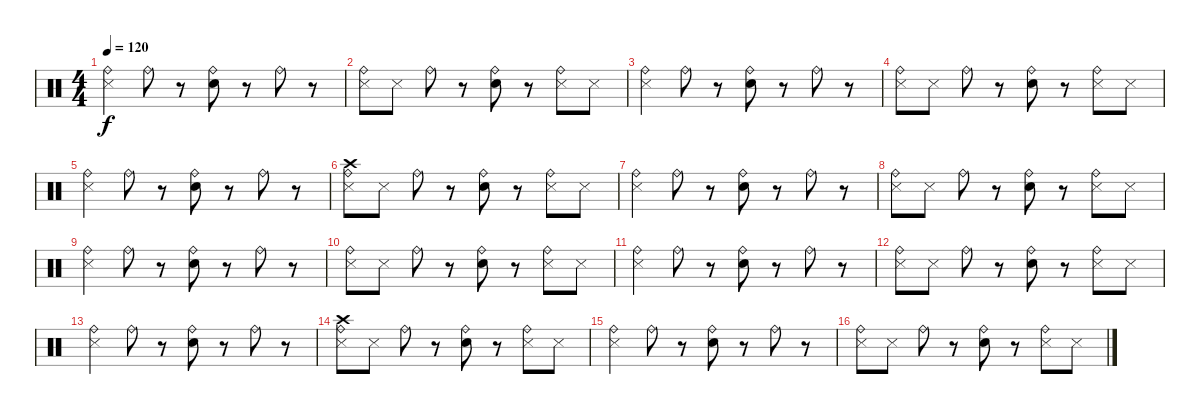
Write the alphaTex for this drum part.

\track "" {instrument percussion}
\staff {score}
\articulation defaults
\ts (4 4)
\tempo 120
\clef neutral
\ks c
("Metronome (hit)" "Ride (bell)").4{dy f} "Ride (bell)".8 r.8 ("Electric Snare (hit)" "Ride (bell)").8 r.8 "Ride (bell)".8 r.8 |
("Metronome (hit)" "Ride (bell)").8 "Metronome (hit)".8 "Ride (bell)".8 r.8 ("Electric Snare (hit)" "Ride (bell)").8 r.8 ("Metronome (hit)" "Ride (bell)").8 "Metronome (hit)".8 |
("Metronome (hit)" "Ride (bell)").4 "Ride (bell)".8 r.8 ("Electric Snare (hit)" "Ride (bell)").8 r.8 "Ride (bell)".8 r.8 |
("Metronome (hit)" "Ride (bell)").8 "Metronome (hit)".8 "Ride (bell)".8 r.8 ("Electric Snare (hit)" "Ride (bell)").8 r.8 ("Metronome (hit)" "Ride (bell)").8 "Metronome (hit)".8 |
("Metronome (hit)" "Ride (bell)").4 "Ride (bell)".8 r.8 ("Electric Snare (hit)" "Ride (bell)").8 r.8 "Ride (bell)".8 r.8 |
("Metronome (hit)" "Crash high (hit)" "Ride (bell)").8 "Metronome (hit)".8 "Ride (bell)".8 r.8 ("Electric Snare (hit)" "Ride (bell)").8 r.8 ("Metronome (hit)" "Ride (bell)").8 "Metronome (hit)".8 |
("Metronome (hit)" "Ride (bell)").4 "Ride (bell)".8 r.8 ("Electric Snare (hit)" "Ride (bell)").8 r.8 "Ride (bell)".8 r.8 |
("Metronome (hit)" "Ride (bell)").8 "Metronome (hit)".8 "Ride (bell)".8 r.8 ("Electric Snare (hit)" "Ride (bell)").8 r.8 ("Metronome (hit)" "Ride (bell)").8 "Metronome (hit)".8 |
("Metronome (hit)" "Ride (bell)").4 "Ride (bell)".8 r.8 ("Electric Snare (hit)" "Ride (bell)").8 r.8 "Ride (bell)".8 r.8 |
("Metronome (hit)" "Ride (bell)").8 "Metronome (hit)".8 "Ride (bell)".8 r.8 ("Electric Snare (hit)" "Ride (bell)").8 r.8 ("Metronome (hit)" "Ride (bell)").8 "Metronome (hit)".8 |
("Metronome (hit)" "Ride (bell)").4 "Ride (bell)".8 r.8 ("Electric Snare (hit)" "Ride (bell)").8 r.8 "Ride (bell)".8 r.8 |
("Metronome (hit)" "Ride (bell)").8 "Metronome (hit)".8 "Ride (bell)".8 r.8 ("Electric Snare (hit)" "Ride (bell)").8 r.8 ("Metronome (hit)" "Ride (bell)").8 "Metronome (hit)".8 |
("Metronome (hit)" "Ride (bell)").4 "Ride (bell)".8 r.8 ("Electric Snare (hit)" "Ride (bell)").8 r.8 "Ride (bell)".8 r.8 |
("Metronome (hit)" "Ride (bell)" "Crash high (hit)").8 "Metronome (hit)".8 "Ride (bell)".8 r.8 ("Electric Snare (hit)" "Ride (bell)").8 r.8 ("Metronome (hit)" "Ride (bell)").8 "Metronome (hit)".8 |
("Metronome (hit)" "Ride (bell)").4 "Ride (bell)".8 r.8 ("Electric Snare (hit)" "Ride (bell)").8 r.8 "Ride (bell)".8 r.8 |
("Metronome (hit)" "Ride (bell)").8 "Metronome (hit)".8 "Ride (bell)".8 r.8 ("Electric Snare (hit)" "Ride (bell)").8 r.8 ("Metronome (hit)" "Ride (bell)").8 "Metronome (hit)".8
